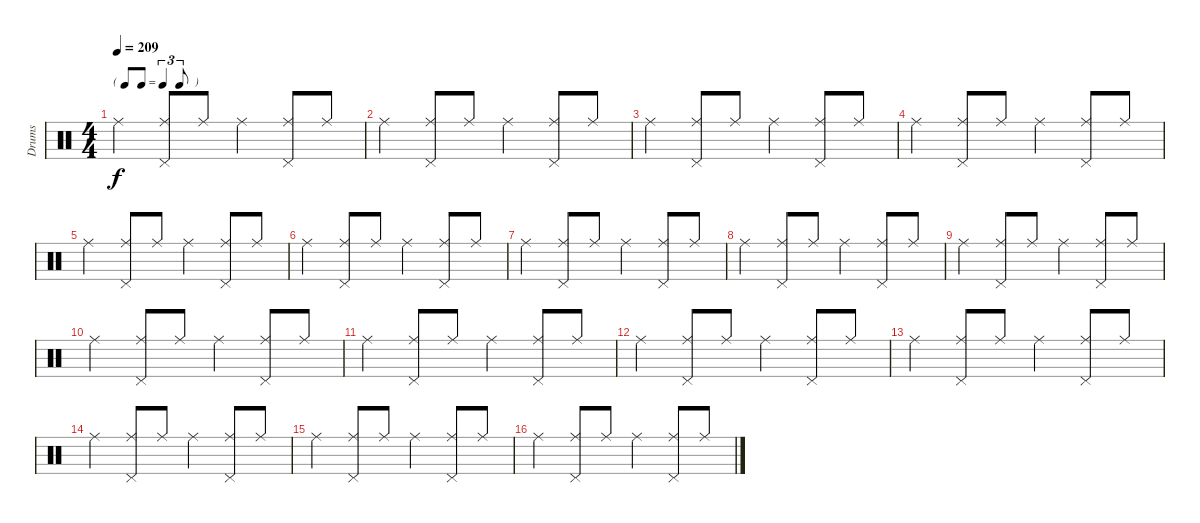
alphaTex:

\track ("Drums" "Drums") {instrument percussion}
\staff {score}
\articulation defaults
\ts (4 4)
\tf triplet8th
\tempo 209
\clef neutral
\ks c "Ride (middle)".4{dy f}
("Ride (middle)" "Pedal Hi-Hat (hit)").8 "Ride (middle)".8 "Ride (middle)".4 ("Ride (middle)" "Pedal Hi-Hat (hit)").8 "Ride (middle)".8 |
"Ride (middle)".4 ("Ride (middle)" "Pedal Hi-Hat (hit)").8 "Ride (middle)".8 "Ride (middle)".4 ("Ride (middle)" "Pedal Hi-Hat (hit)").8 "Ride (middle)".8 |
"Ride (middle)".4 ("Ride (middle)" "Pedal Hi-Hat (hit)").8 "Ride (middle)".8 "Ride (middle)".4 ("Ride (middle)" "Pedal Hi-Hat (hit)").8 "Ride (middle)".8 |
"Ride (middle)".4 ("Ride (middle)" "Pedal Hi-Hat (hit)").8 "Ride (middle)".8 "Ride (middle)".4 ("Ride (middle)" "Pedal Hi-Hat (hit)").8 "Ride (middle)".8 |
"Ride (middle)".4 ("Ride (middle)" "Pedal Hi-Hat (hit)").8 "Ride (middle)".8 "Ride (middle)".4 ("Ride (middle)" "Pedal Hi-Hat (hit)").8 "Ride (middle)".8 |
"Ride (middle)".4 ("Ride (middle)" "Pedal Hi-Hat (hit)").8 "Ride (middle)".8 "Ride (middle)".4 ("Ride (middle)" "Pedal Hi-Hat (hit)").8 "Ride (middle)".8 |
"Ride (middle)".4 ("Ride (middle)" "Pedal Hi-Hat (hit)").8 "Ride (middle)".8 "Ride (middle)".4 ("Ride (middle)" "Pedal Hi-Hat (hit)").8 "Ride (middle)".8 |
"Ride (middle)".4 ("Ride (middle)" "Pedal Hi-Hat (hit)").8 "Ride (middle)".8 "Ride (middle)".4 ("Ride (middle)" "Pedal Hi-Hat (hit)").8 "Ride (middle)".8 |
"Ride (middle)".4 ("Ride (middle)" "Pedal Hi-Hat (hit)").8 "Ride (middle)".8 "Ride (middle)".4 ("Ride (middle)" "Pedal Hi-Hat (hit)").8 "Ride (middle)".8 |
"Ride (middle)".4 ("Ride (middle)" "Pedal Hi-Hat (hit)").8 "Ride (middle)".8 "Ride (middle)".4 ("Ride (middle)" "Pedal Hi-Hat (hit)").8 "Ride (middle)".8 |
"Ride (middle)".4 ("Ride (middle)" "Pedal Hi-Hat (hit)").8 "Ride (middle)".8 "Ride (middle)".4 ("Ride (middle)" "Pedal Hi-Hat (hit)").8 "Ride (middle)".8 |
"Ride (middle)".4 ("Ride (middle)" "Pedal Hi-Hat (hit)").8 "Ride (middle)".8 "Ride (middle)".4 ("Ride (middle)" "Pedal Hi-Hat (hit)").8 "Ride (middle)".8 |
"Ride (middle)".4 ("Ride (middle)" "Pedal Hi-Hat (hit)").8 "Ride (middle)".8 "Ride (middle)".4 ("Ride (middle)" "Pedal Hi-Hat (hit)").8 "Ride (middle)".8 |
"Ride (middle)".4 ("Ride (middle)" "Pedal Hi-Hat (hit)").8 "Ride (middle)".8 "Ride (middle)".4 ("Ride (middle)" "Pedal Hi-Hat (hit)").8 "Ride (middle)".8 |
"Ride (middle)".4 ("Ride (middle)" "Pedal Hi-Hat (hit)").8 "Ride (middle)".8 "Ride (middle)".4 ("Ride (middle)" "Pedal Hi-Hat (hit)").8 "Ride (middle)".8 |
"Ride (middle)".4 ("Ride (middle)" "Pedal Hi-Hat (hit)").8 "Ride (middle)".8 "Ride (middle)".4 ("Ride (middle)" "Pedal Hi-Hat (hit)").8 "Ride (middle)".8
